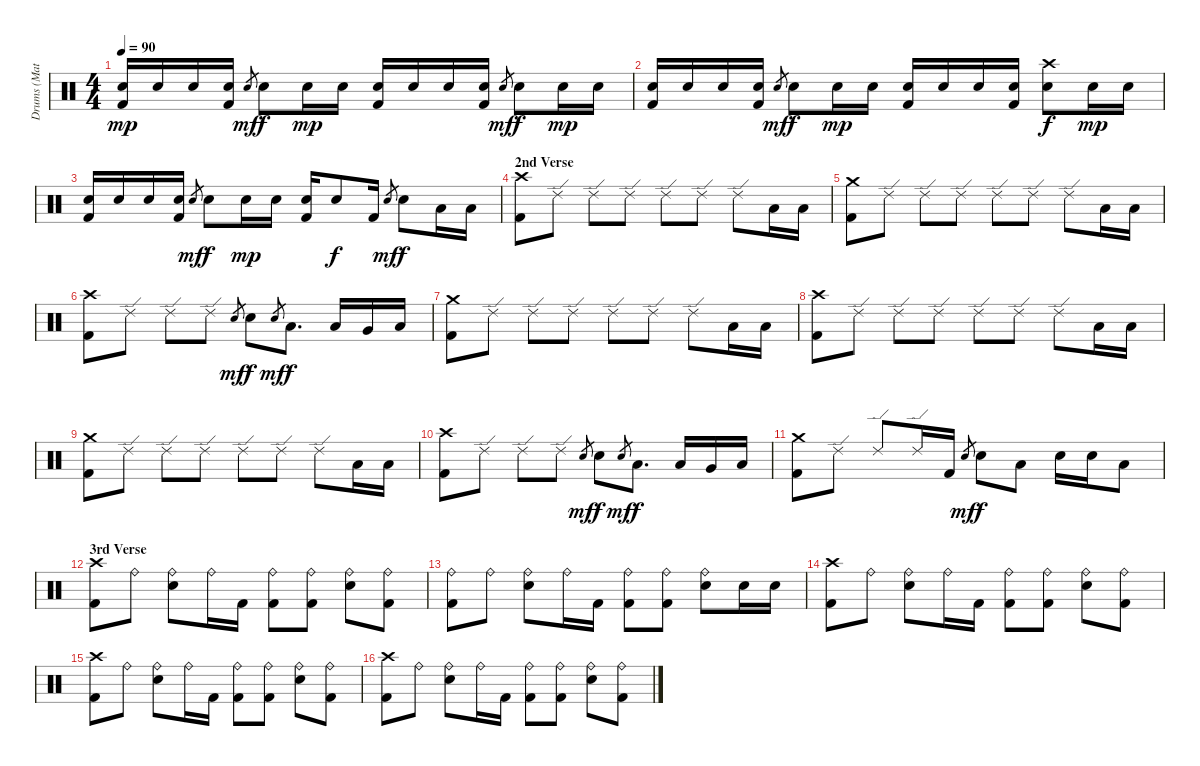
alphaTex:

\track ("Drums (Matt)" "Drums (Mat") {instrument percussion}
\staff {score}
\articulation defaults
\ts (4 4)
\tempo 90
\clef neutral
\ks c
("Snare (hit) 2" "Kick (hit) 2").16{dy mp} "Snare (hit) 2".16 "Snare (hit) 2".16 ("Snare (hit) 2" "Kick (hit) 2").16 "Snare (hit)".8{gr dy mf} "Snare (hit) 2".8{dy f} "Snare (hit) 2".16{dy mp} "Snare (hit) 2".16 ("Snare (hit) 2" "Kick (hit) 2").16 "Snare (hit) 2".16 "Snare (hit) 2".16 ("Snare (hit) 2" "Kick (hit) 2").16 "Snare (hit)".8{gr dy mf} "Snare (hit) 2".8{dy f} "Snare (hit) 2".16{dy mp} "Snare (hit) 2".16 |
("Snare (hit) 2" "Kick (hit) 2").16 "Snare (hit) 2".16 "Snare (hit) 2".16 ("Snare (hit) 2" "Kick (hit) 2").16 "Snare (hit)".8{gr dy mf} "Snare (hit) 2".8{dy f} "Snare (hit) 2".16{dy mp} "Snare (hit) 2".16 ("Snare (hit) 2" "Kick (hit) 2").16 "Snare (hit) 2".16 "Snare (hit) 2".16 ("Snare (hit) 2" "Kick (hit) 2").16 ("Crash high (hit)" "Snare (hit) 2").8{dy f} "Snare (hit) 2".16{dy mp} "Snare (hit) 2".16 |
("Snare (hit) 2" "Kick (hit) 2").16 "Snare (hit) 2".16 "Snare (hit) 2".16 ("Snare (hit) 2" "Kick (hit) 2").16 "Snare (hit)".8{gr dy mf} "Snare (hit) 2".8{dy f} "Snare (hit) 2".16{dy mp} "Snare (hit) 2".16 ("Snare (hit) 2" "Kick (hit) 2").16 "Snare (hit) 2".8{dy f} "Kick (hit) 2".16 "Snare (hit)".8{gr dy mf} "Snare (hit) 2".8{dy f} "Low Tom (hit)".16 "Low Tom (hit)".16 |
\section ("" "2nd Verse")
("Crash high (hit)" "Kick (hit) 2").8 "Ride (edge) 2".8 "Ride (edge) 2".8 "Ride (edge) 2".8 "Ride (edge) 2".8 "Ride (edge) 2".8 "Ride (edge) 2".8 "Low Tom (hit)".16 "Low Tom (hit)".16 |
("Crash medium (hit)" "Kick (hit) 2").8 "Ride (edge) 2".8 "Ride (edge) 2".8 "Ride (edge) 2".8 "Ride (edge) 2".8 "Ride (edge) 2".8 "Ride (edge) 2".8 "Low Tom (hit)".16 "Low Tom (hit)".16 |
("Crash high (hit)" "Kick (hit) 2").8 "Ride (edge) 2".8 "Ride (edge) 2".8 "Ride (edge) 2".8 "Snare (hit)".8{gr dy mf} "Snare (hit) 2".8{dy f} "Snare (hit)".8{gr dy mf} "Low Tom (hit)".8{d dy f} "Low Tom (hit)".16 "Very Low Tom (hit)".16 "Low Floor Tom (hit)".16 |
("Crash medium (hit)" "Kick (hit) 2").8 "Ride (edge) 2".8 "Ride (edge) 2".8 "Ride (edge) 2".8 "Ride (edge) 2".8 "Ride (edge) 2".8 "Ride (edge) 2".8 "Low Tom (hit)".16 "Low Tom (hit)".16 |
("Crash high (hit)" "Kick (hit) 2").8 "Ride (edge) 2".8 "Ride (edge) 2".8 "Ride (edge) 2".8 "Ride (edge) 2".8 "Ride (edge) 2".8 "Ride (edge) 2".8 "Low Tom (hit)".16 "Low Tom (hit)".16 |
("Crash medium (hit)" "Kick (hit) 2").8 "Ride (edge) 2".8 "Ride (edge) 2".8 "Ride (edge) 2".8 "Ride (edge) 2".8 "Ride (edge) 2".8 "Ride (edge) 2".8 "Low Tom (hit)".16 "Low Tom (hit)".16 |
("Crash high (hit)" "Kick (hit) 2").8 "Ride (edge) 2".8 "Ride (edge) 2".8 "Ride (edge) 2".8 "Snare (hit)".8{gr dy mf} "Snare (hit) 2".8{dy f} "Snare (hit)".8{gr dy mf} "Low Tom (hit)".8{d dy f} "Low Tom (hit)".16 "Very Low Tom (hit)".16 "Low Floor Tom (hit)".16 |
("Crash medium (hit)" "Kick (hit) 2").8 "Ride (edge) 2".8 "Ride (edge) 2".8 "Ride (edge) 2".16 "Kick (hit) 2".16 "Snare (hit)".8{gr dy mf} "Snare (hit) 2".8{dy f} "Low Tom (hit)".8 "Snare (hit) 2".16 "Snare (hit) 2".16 "Low Tom (hit)".8 |
\section ("" "3rd Verse")
("Crash high (hit)" "Kick (hit) 2").8 "Ride (bell)".8 ("Ride (bell)" "Snare (hit) 2").8 "Ride (bell)".16 "Kick (hit) 2".16 ("Ride (bell)" "Kick (hit) 2").8 ("Ride (bell)" "Kick (hit) 2").8 ("Ride (bell)" "Snare (hit) 2").8 ("Ride (bell)" "Kick (hit) 2").8 |
("Ride (bell)" "Kick (hit) 2").8 "Ride (bell)".8 ("Ride (bell)" "Snare (hit) 2").8 "Ride (bell)".16 "Kick (hit) 2".16 ("Ride (bell)" "Kick (hit) 2").8 ("Ride (bell)" "Kick (hit) 2").8 ("Ride (bell)" "Snare (hit) 2").8 "Snare (hit) 2".16 "Snare (hit) 2".16 |
("Crash high (hit)" "Kick (hit) 2").8 "Ride (bell)".8 ("Ride (bell)" "Snare (hit) 2").8 "Ride (bell)".16 "Kick (hit) 2".16 ("Ride (bell)" "Kick (hit) 2").8 ("Ride (bell)" "Kick (hit) 2").8 ("Ride (bell)" "Snare (hit) 2").8 ("Ride (bell)" "Kick (hit) 2").8 |
("Crash high (hit)" "Kick (hit) 2").8 "Ride (bell)".8 ("Ride (bell)" "Snare (hit) 2").8 "Ride (bell)".16 "Kick (hit) 2".16 ("Ride (bell)" "Kick (hit) 2").8 ("Ride (bell)" "Kick (hit) 2").8 ("Ride (bell)" "Snare (hit) 2").8 ("Ride (bell)" "Kick (hit) 2").8 |
("Crash high (hit)" "Kick (hit) 2").8 "Ride (bell)".8 ("Ride (bell)" "Snare (hit) 2").8 "Ride (bell)".16 "Kick (hit) 2".16 ("Ride (bell)" "Kick (hit) 2").8 ("Ride (bell)" "Kick (hit) 2").8 ("Ride (bell)" "Snare (hit) 2").8 ("Ride (bell)" "Kick (hit) 2").8
